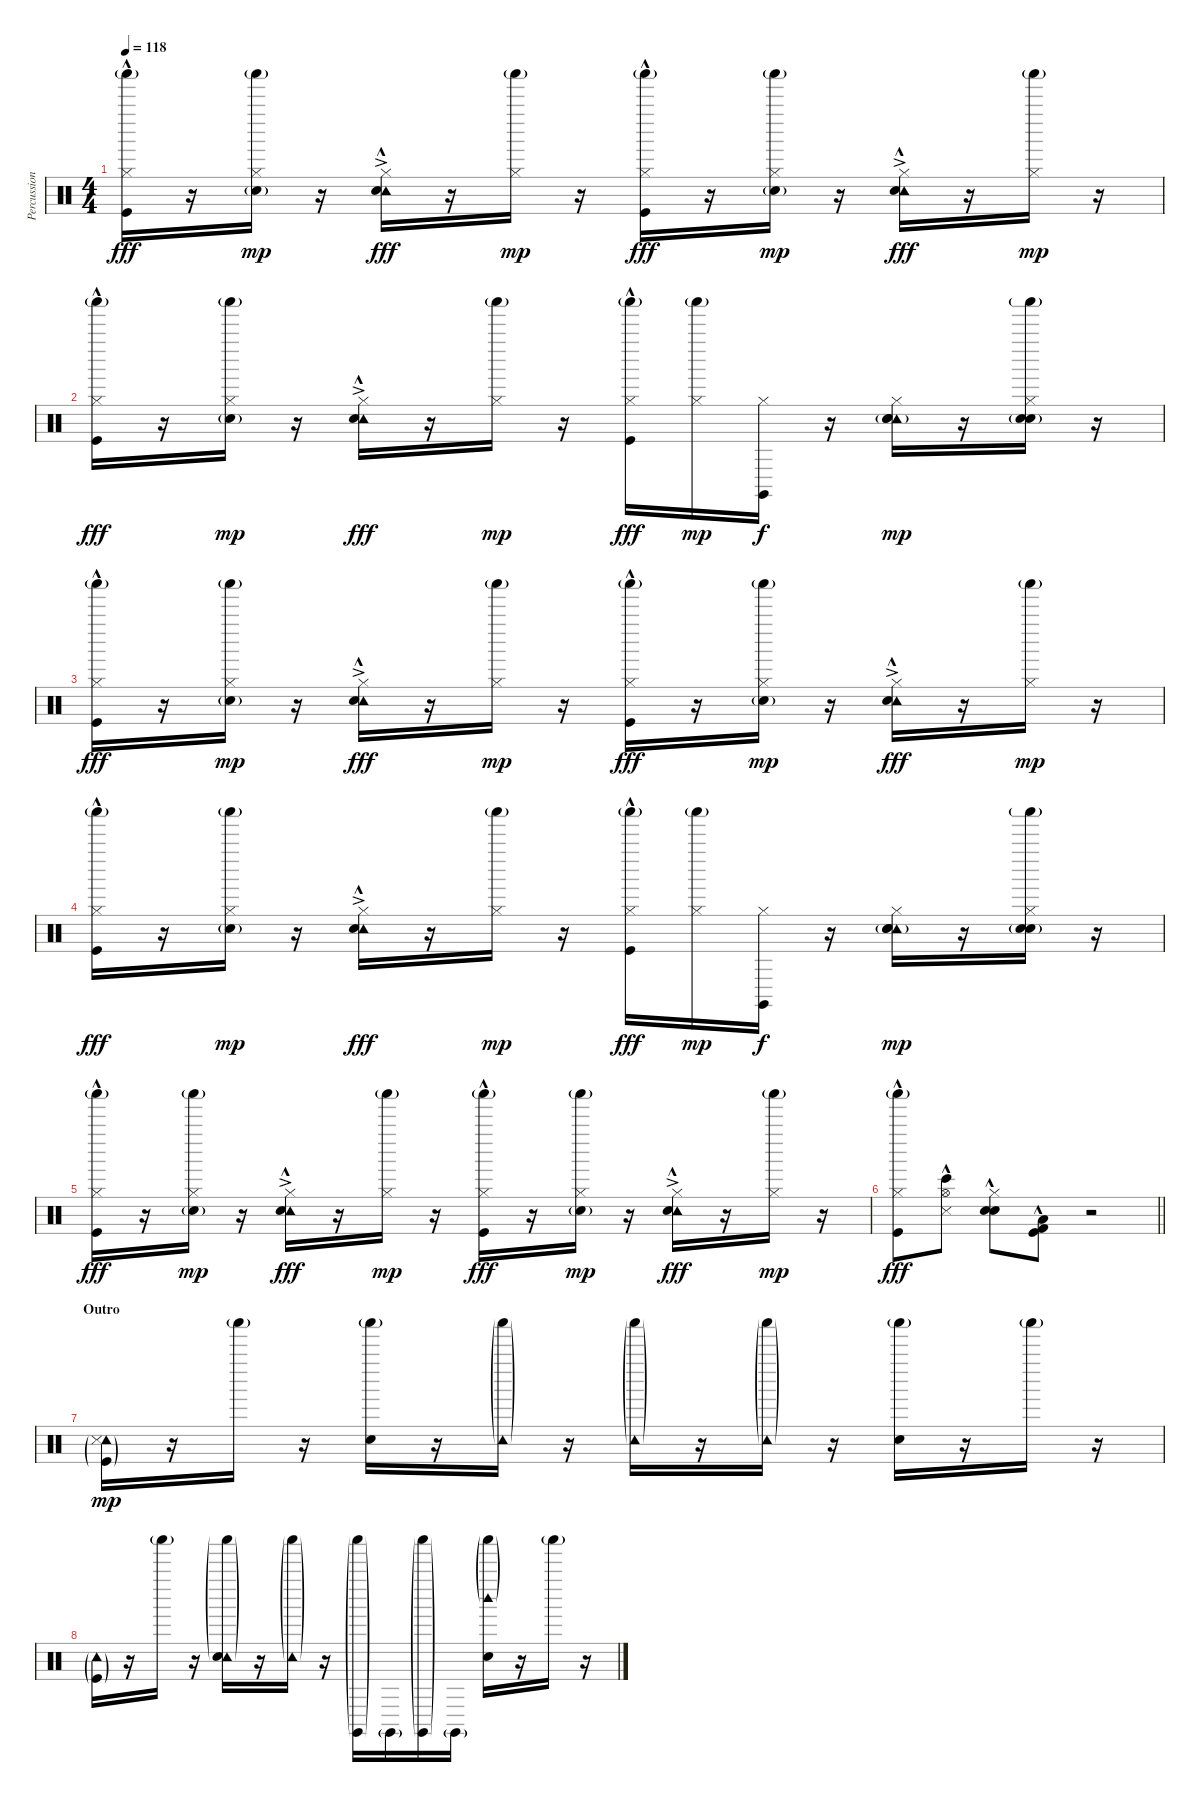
\track ("Percussion" "Percussion") {instrument percussion}
\staff {score}
\articulation defaults
\ts (4 4)
\tempo 118
\clef neutral
\ks c
("Shaker (hit)"{g} "Hi-Hat (closed)" "Kick (hit)"{hac}).16{dy fff} r.16 ("Shaker (hit)"{g} "Hi-Hat (closed)" "Hand Clap (hit)"{g}).16{dy mp} r.16 ("Tambourine (hit)"{ac} "Hi-Hat (closed)" "Snare (hit) 2"{hac}).16{dy fff} r.16 ("Shaker (hit)"{g} "Hi-Hat (closed)").16{dy mp} r.16 ("Shaker (hit)"{g} "Hi-Hat (closed)" "Kick (hit)"{hac}).16{dy fff} r.16 ("Shaker (hit)"{g} "Hi-Hat (closed)" "Hand Clap (hit)"{g}).16{dy mp} r.16 ("Tambourine (hit)"{ac} "Hi-Hat (closed)" "Snare (hit) 2"{hac}).16{dy fff} r.16 ("Shaker (hit)"{g} "Hi-Hat (closed)").16{dy mp} r.16 |
("Shaker (hit)"{g} "Hi-Hat (closed)" "Kick (hit)"{hac}).16{dy fff} r.16 ("Shaker (hit)"{g} "Hi-Hat (closed)" "Hand Clap (hit)"{g}).16{dy mp} r.16 ("Tambourine (hit)"{ac} "Hi-Hat (closed)" "Snare (hit) 2"{hac}).16{dy fff} r.16 ("Shaker (hit)"{g} "Hi-Hat (closed)").16{dy mp} r.16 ("Shaker (hit)"{g} "Hi-Hat (closed)" "Kick (hit)"{hac}).16{dy fff} ("Shaker (hit)"{g} "Hi-Hat (closed)").16{dy mp} ("Claves (hit)" "Hi-Hat (closed)").16{dy f} r.16 ("Tambourine (hit)" "Hi-Hat (closed)" "Hand Clap (hit)" "Snare (hit) 2"{g}).16{dy mp} r.16 ("Shaker (hit)"{g} "Hi-Hat (closed)" "Hand Clap (hit)" "Snare (hit) 2"{g}).16 r.16 |
("Shaker (hit)"{g} "Hi-Hat (closed)" "Kick (hit)"{hac}).16{dy fff} r.16 ("Shaker (hit)"{g} "Hi-Hat (closed)" "Hand Clap (hit)"{g}).16{dy mp} r.16 ("Tambourine (hit)"{ac} "Hi-Hat (closed)" "Snare (hit) 2"{hac}).16{dy fff} r.16 ("Shaker (hit)"{g} "Hi-Hat (closed)").16{dy mp} r.16 ("Shaker (hit)"{g} "Hi-Hat (closed)" "Kick (hit)"{hac}).16{dy fff} r.16 ("Shaker (hit)"{g} "Hi-Hat (closed)" "Hand Clap (hit)"{g}).16{dy mp} r.16 ("Tambourine (hit)"{ac} "Hi-Hat (closed)" "Snare (hit) 2"{hac}).16{dy fff} r.16 ("Shaker (hit)"{g} "Hi-Hat (closed)").16{dy mp} r.16 |
("Shaker (hit)"{g} "Hi-Hat (closed)" "Kick (hit)"{hac}).16{dy fff} r.16 ("Shaker (hit)"{g} "Hi-Hat (closed)" "Hand Clap (hit)"{g}).16{dy mp} r.16 ("Tambourine (hit)"{ac} "Hi-Hat (closed)" "Snare (hit) 2"{hac}).16{dy fff} r.16 ("Shaker (hit)"{g} "Hi-Hat (closed)").16{dy mp} r.16 ("Shaker (hit)"{g} "Hi-Hat (closed)" "Kick (hit)"{hac}).16{dy fff} ("Shaker (hit)"{g} "Hi-Hat (closed)").16{dy mp} ("Claves (hit)" "Hi-Hat (closed)").16{dy f} r.16 ("Tambourine (hit)" "Hi-Hat (closed)" "Hand Clap (hit)" "Snare (hit) 2"{g}).16{dy mp} r.16 ("Shaker (hit)"{g} "Hi-Hat (closed)" "Hand Clap (hit)" "Snare (hit) 2"{g}).16 r.16 |
("Shaker (hit)"{g} "Hi-Hat (closed)" "Kick (hit)"{hac}).16{dy fff} r.16 ("Shaker (hit)"{g} "Hi-Hat (closed)" "Hand Clap (hit)"{g}).16{dy mp} r.16 ("Tambourine (hit)"{ac} "Hi-Hat (closed)" "Snare (hit) 2"{hac}).16{dy fff} r.16 ("Shaker (hit)"{g} "Hi-Hat (closed)").16{dy mp} r.16 ("Shaker (hit)"{g} "Hi-Hat (closed)" "Kick (hit)"{hac}).16{dy fff} r.16 ("Shaker (hit)"{g} "Hi-Hat (closed)" "Hand Clap (hit)"{g}).16{dy mp} r.16 ("Tambourine (hit)"{ac} "Hi-Hat (closed)" "Snare (hit) 2"{hac}).16{dy fff} r.16 ("Shaker (hit)"{g} "Hi-Hat (closed)").16{dy mp} r.16 |
\barLineRight lightlight
("Shaker (hit)"{g} "Hi-Hat (closed)" "Kick (hit)"{hac}).8{dy fff} ("Hi-Hat (open)" "Bongo High (hit)"{hac} "Snare (side stick) 3"{hac}).8 ("Hi-Hat (closed)" "Hand Clap (hit)"{hac} "Snare (hit) 2"{hac}).8 ("Low Tom (hit)"{hac} "Kick (hit) 2"{hac} "Kick (hit)"{hac}).8 r.2 |
\section ("" "Outro")
("Tambourine (hit)"{g} "Snare (side stick) 3"{g} "Kick (hit)"{g}).16{dy mp} r.16 "Shaker (hit)"{g}.16 r.16 ("Shaker (hit)"{g} "Hand Clap (hit)").16 r.16 ("Shaker (hit)"{g} "Tambourine (hit)"{g}).16 r.16 ("Shaker (hit)"{g} "Tambourine (hit)"{g}).16 r.16 ("Shaker (hit)"{g} "Tambourine (hit)"{g}).16 r.16 ("Shaker (hit)"{g} "Hand Clap (hit)").16 r.16 "Shaker (hit)"{g}.16 r.16 |
("Tambourine (hit)"{g} "Kick (hit)"{g}).16 r.16 "Shaker (hit)"{g}.16 r.16 ("Shaker (hit)"{g} "Tambourine (hit)"{g} "Hand Clap (hit)").16 r.16 ("Shaker (hit)"{g} "Tambourine (hit)"{g}).16 r.16 ("Shaker (hit)"{g} "Claves (hit)"{g}).16 "Claves (hit)"{g}.16 ("Shaker (hit)"{g} "Claves (hit)"{g}).16 "Claves (hit)"{g}.16 ("Shaker (hit)"{g} "Woodblock high (hit)"{g} "Hand Clap (hit)").16 r.16 "Shaker (hit)"{g}.16 r.16
